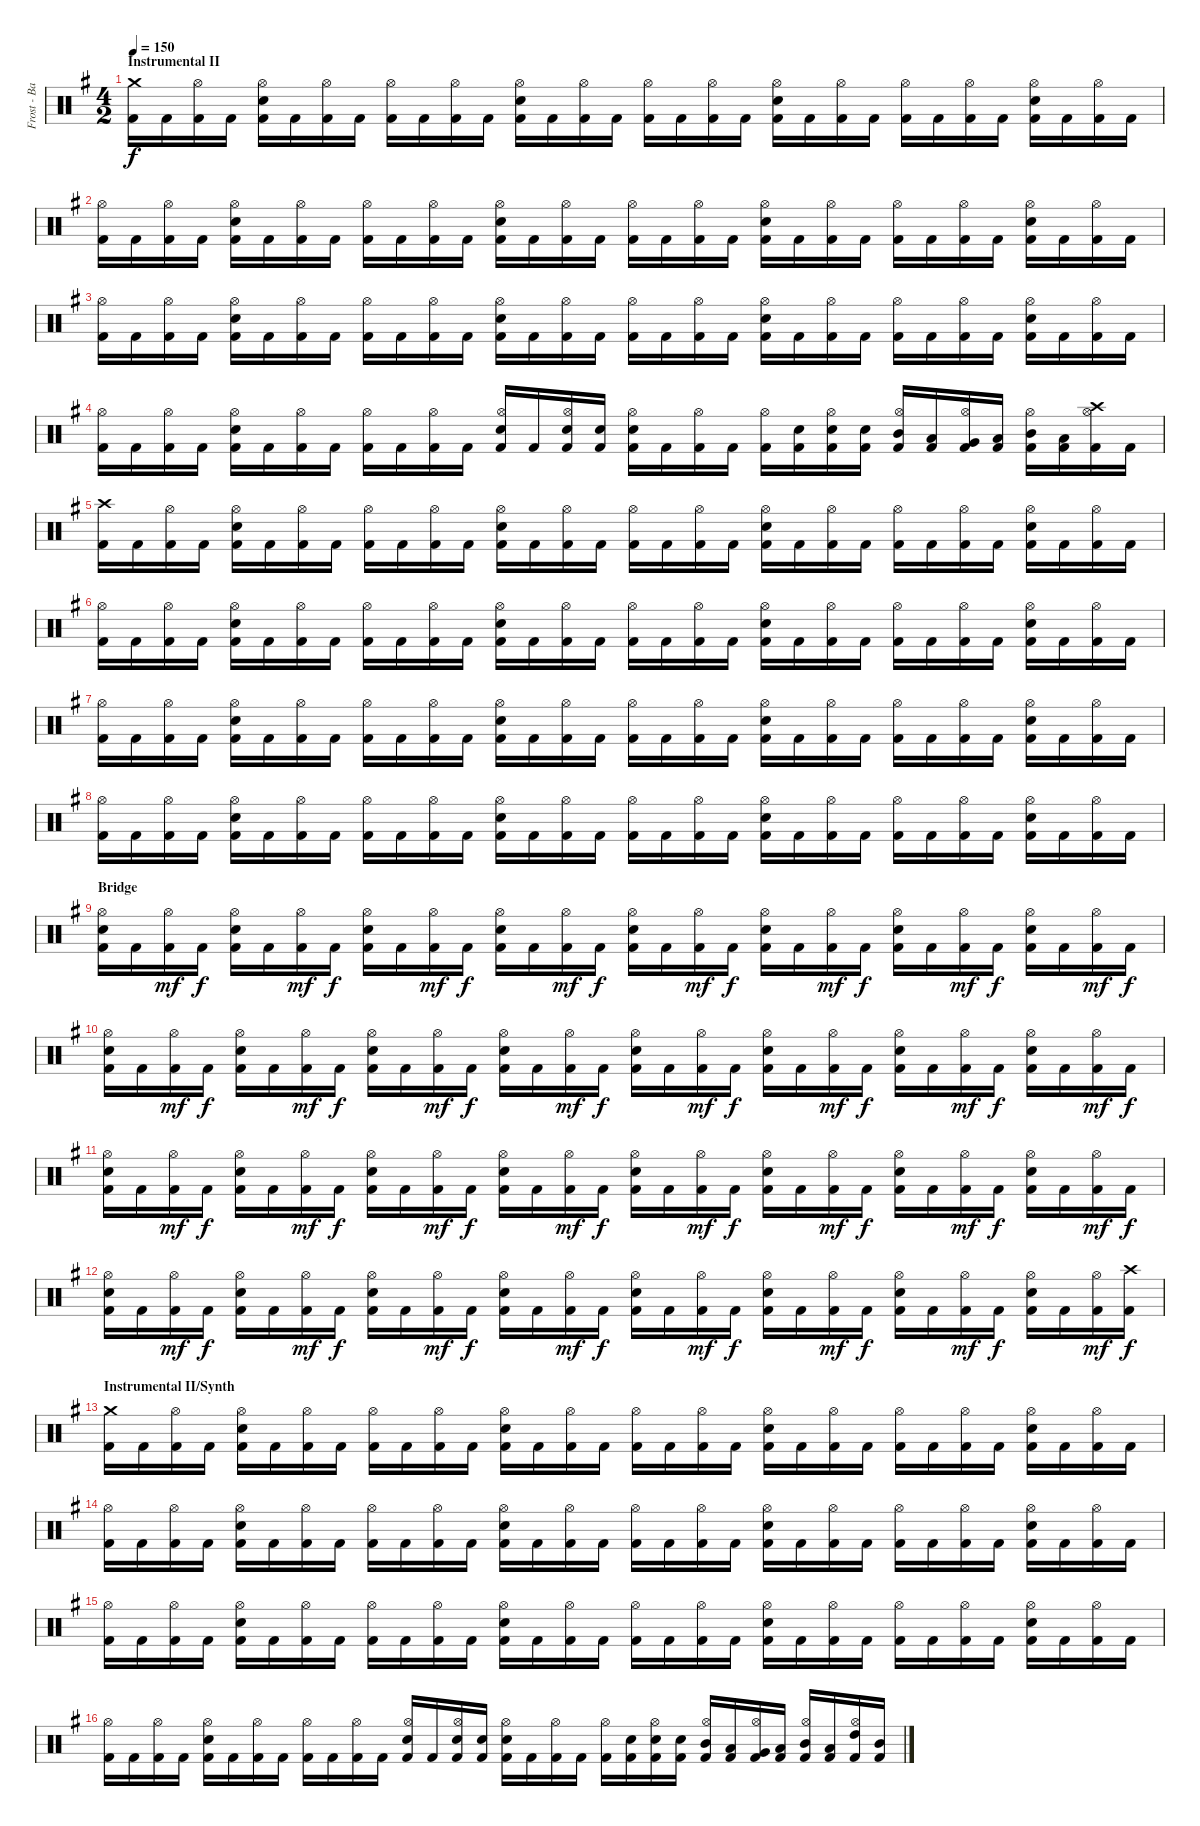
\track ("Frost - Battery" "Frost - Ba") {instrument percussion}
\staff {score}
\articulation defaults
\ts (4 2)
\section ("" "Instrumental II")
\tempo 150
\clef neutral
\ks eminor
("Kick (hit) 2" "Crash medium (hit)").16{dy f} "Kick (hit) 2".16 ("Kick (hit) 2" "Hi-Hat (open)").16 "Kick (hit) 2".16 ("Kick (hit) 2" "Hi-Hat (open)" "Electric Snare (hit)").16 "Kick (hit) 2".16 ("Kick (hit) 2" "Hi-Hat (open)").16 "Kick (hit) 2".16 ("Kick (hit) 2" "Hi-Hat (open)").16 "Kick (hit) 2".16 ("Kick (hit) 2" "Hi-Hat (open)").16 "Kick (hit) 2".16 ("Kick (hit) 2" "Hi-Hat (open)" "Electric Snare (hit)").16 "Kick (hit) 2".16 ("Kick (hit) 2" "Hi-Hat (open)").16 "Kick (hit) 2".16 ("Kick (hit) 2" "Hi-Hat (open)").16 "Kick (hit) 2".16 ("Kick (hit) 2" "Hi-Hat (open)").16 "Kick (hit) 2".16 ("Kick (hit) 2" "Hi-Hat (open)" "Electric Snare (hit)").16 "Kick (hit) 2".16 ("Kick (hit) 2" "Hi-Hat (open)").16 "Kick (hit) 2".16 ("Kick (hit) 2" "Hi-Hat (open)").16 "Kick (hit) 2".16 ("Kick (hit) 2" "Hi-Hat (open)").16 "Kick (hit) 2".16 ("Kick (hit) 2" "Hi-Hat (open)" "Electric Snare (hit)").16 "Kick (hit) 2".16 ("Kick (hit) 2" "Hi-Hat (open)").16 "Kick (hit) 2".16 |
("Kick (hit) 2" "Hi-Hat (open)").16 "Kick (hit) 2".16 ("Kick (hit) 2" "Hi-Hat (open)").16 "Kick (hit) 2".16 ("Kick (hit) 2" "Hi-Hat (open)" "Electric Snare (hit)").16 "Kick (hit) 2".16 ("Kick (hit) 2" "Hi-Hat (open)").16 "Kick (hit) 2".16 ("Kick (hit) 2" "Hi-Hat (open)").16 "Kick (hit) 2".16 ("Kick (hit) 2" "Hi-Hat (open)").16 "Kick (hit) 2".16 ("Kick (hit) 2" "Hi-Hat (open)" "Electric Snare (hit)").16 "Kick (hit) 2".16 ("Kick (hit) 2" "Hi-Hat (open)").16 "Kick (hit) 2".16 ("Kick (hit) 2" "Hi-Hat (open)").16 "Kick (hit) 2".16 ("Kick (hit) 2" "Hi-Hat (open)").16 "Kick (hit) 2".16 ("Kick (hit) 2" "Hi-Hat (open)" "Electric Snare (hit)").16 "Kick (hit) 2".16 ("Kick (hit) 2" "Hi-Hat (open)").16 "Kick (hit) 2".16 ("Kick (hit) 2" "Hi-Hat (open)").16 "Kick (hit) 2".16 ("Kick (hit) 2" "Hi-Hat (open)").16 "Kick (hit) 2".16 ("Kick (hit) 2" "Hi-Hat (open)" "Electric Snare (hit)").16 "Kick (hit) 2".16 ("Kick (hit) 2" "Hi-Hat (open)").16 "Kick (hit) 2".16 |
("Kick (hit) 2" "Hi-Hat (open)").16 "Kick (hit) 2".16 ("Kick (hit) 2" "Hi-Hat (open)").16 "Kick (hit) 2".16 ("Kick (hit) 2" "Hi-Hat (open)" "Electric Snare (hit)").16 "Kick (hit) 2".16 ("Kick (hit) 2" "Hi-Hat (open)").16 "Kick (hit) 2".16 ("Kick (hit) 2" "Hi-Hat (open)").16 "Kick (hit) 2".16 ("Kick (hit) 2" "Hi-Hat (open)").16 "Kick (hit) 2".16 ("Kick (hit) 2" "Hi-Hat (open)" "Electric Snare (hit)").16 "Kick (hit) 2".16 ("Kick (hit) 2" "Hi-Hat (open)").16 "Kick (hit) 2".16 ("Kick (hit) 2" "Hi-Hat (open)").16 "Kick (hit) 2".16 ("Kick (hit) 2" "Hi-Hat (open)").16 "Kick (hit) 2".16 ("Kick (hit) 2" "Hi-Hat (open)" "Electric Snare (hit)").16 "Kick (hit) 2".16 ("Kick (hit) 2" "Hi-Hat (open)").16 "Kick (hit) 2".16 ("Kick (hit) 2" "Hi-Hat (open)").16 "Kick (hit) 2".16 ("Kick (hit) 2" "Hi-Hat (open)").16 "Kick (hit) 2".16 ("Kick (hit) 2" "Hi-Hat (open)" "Electric Snare (hit)").16 "Kick (hit) 2".16 ("Kick (hit) 2" "Hi-Hat (open)").16 "Kick (hit) 2".16 |
("Kick (hit) 2" "Hi-Hat (open)").16 "Kick (hit) 2".16 ("Kick (hit) 2" "Hi-Hat (open)").16 "Kick (hit) 2".16 ("Kick (hit) 2" "Hi-Hat (open)" "Electric Snare (hit)").16 "Kick (hit) 2".16 ("Kick (hit) 2" "Hi-Hat (open)").16 "Kick (hit) 2".16 ("Kick (hit) 2" "Hi-Hat (open)").16 "Kick (hit) 2".16 ("Kick (hit) 2" "Hi-Hat (open)").16 "Kick (hit) 2".16 ("Kick (hit) 2" "Hi-Hat (open)" "Electric Snare (hit)").16 "Kick (hit) 2".16 ("Kick (hit) 2" "Hi-Hat (open)" "Electric Snare (hit)").16 ("Kick (hit) 2" "Electric Snare (hit)").16 ("Kick (hit) 2" "Hi-Hat (open)" "Electric Snare (hit)").16 "Kick (hit) 2".16 ("Kick (hit) 2" "Hi-Hat (open)").16 "Kick (hit) 2".16 ("Kick (hit) 2" "Hi-Hat (open)").16 ("Kick (hit) 2" "Electric Snare (hit)").16 ("Kick (hit) 2" "Hi-Hat (open)" "Electric Snare (hit)").16 ("Kick (hit) 2" "Electric Snare (hit)").16 ("Kick (hit) 2" "Hi-Hat (open)" "Mid Tom (hit)").16 ("Kick (hit) 2" "Low Tom (hit)").16 ("Kick (hit) 2" "Hi-Hat (open)" "Very Low Tom (hit)").16 ("Kick (hit) 2" "Low Floor Tom (hit)").16 ("Kick (hit) 2" "Hi-Hat (open)" "Mid Tom (hit)").16 ("Kick (hit) 2" "Low Tom (hit)").16 ("Kick (hit) 2" "Hi-Hat (open)" "Crash high (hit)").16 "Kick (hit) 2".16 |
("Kick (hit) 2" "Crash high (hit)").16 "Kick (hit) 2".16 ("Kick (hit) 2" "Hi-Hat (open)").16 "Kick (hit) 2".16 ("Kick (hit) 2" "Hi-Hat (open)" "Electric Snare (hit)").16 "Kick (hit) 2".16 ("Kick (hit) 2" "Hi-Hat (open)").16 "Kick (hit) 2".16 ("Kick (hit) 2" "Hi-Hat (open)").16 "Kick (hit) 2".16 ("Kick (hit) 2" "Hi-Hat (open)").16 "Kick (hit) 2".16 ("Kick (hit) 2" "Hi-Hat (open)" "Electric Snare (hit)").16 "Kick (hit) 2".16 ("Kick (hit) 2" "Hi-Hat (open)").16 "Kick (hit) 2".16 ("Kick (hit) 2" "Hi-Hat (open)").16 "Kick (hit) 2".16 ("Kick (hit) 2" "Hi-Hat (open)").16 "Kick (hit) 2".16 ("Kick (hit) 2" "Hi-Hat (open)" "Electric Snare (hit)").16 "Kick (hit) 2".16 ("Kick (hit) 2" "Hi-Hat (open)").16 "Kick (hit) 2".16 ("Kick (hit) 2" "Hi-Hat (open)").16 "Kick (hit) 2".16 ("Kick (hit) 2" "Hi-Hat (open)").16 "Kick (hit) 2".16 ("Kick (hit) 2" "Hi-Hat (open)" "Electric Snare (hit)").16 "Kick (hit) 2".16 ("Kick (hit) 2" "Hi-Hat (open)").16 "Kick (hit) 2".16 |
("Kick (hit) 2" "Hi-Hat (open)").16 "Kick (hit) 2".16 ("Kick (hit) 2" "Hi-Hat (open)").16 "Kick (hit) 2".16 ("Kick (hit) 2" "Hi-Hat (open)" "Electric Snare (hit)").16 "Kick (hit) 2".16 ("Kick (hit) 2" "Hi-Hat (open)").16 "Kick (hit) 2".16 ("Kick (hit) 2" "Hi-Hat (open)").16 "Kick (hit) 2".16 ("Kick (hit) 2" "Hi-Hat (open)").16 "Kick (hit) 2".16 ("Kick (hit) 2" "Hi-Hat (open)" "Electric Snare (hit)").16 "Kick (hit) 2".16 ("Kick (hit) 2" "Hi-Hat (open)").16 "Kick (hit) 2".16 ("Kick (hit) 2" "Hi-Hat (open)").16 "Kick (hit) 2".16 ("Kick (hit) 2" "Hi-Hat (open)").16 "Kick (hit) 2".16 ("Kick (hit) 2" "Hi-Hat (open)" "Electric Snare (hit)").16 "Kick (hit) 2".16 ("Kick (hit) 2" "Hi-Hat (open)").16 "Kick (hit) 2".16 ("Kick (hit) 2" "Hi-Hat (open)").16 "Kick (hit) 2".16 ("Kick (hit) 2" "Hi-Hat (open)").16 "Kick (hit) 2".16 ("Kick (hit) 2" "Hi-Hat (open)" "Electric Snare (hit)").16 "Kick (hit) 2".16 ("Kick (hit) 2" "Hi-Hat (open)").16 "Kick (hit) 2".16 |
("Kick (hit) 2" "Hi-Hat (open)").16 "Kick (hit) 2".16 ("Kick (hit) 2" "Hi-Hat (open)").16 "Kick (hit) 2".16 ("Kick (hit) 2" "Hi-Hat (open)" "Electric Snare (hit)").16 "Kick (hit) 2".16 ("Kick (hit) 2" "Hi-Hat (open)").16 "Kick (hit) 2".16 ("Kick (hit) 2" "Hi-Hat (open)").16 "Kick (hit) 2".16 ("Kick (hit) 2" "Hi-Hat (open)").16 "Kick (hit) 2".16 ("Kick (hit) 2" "Hi-Hat (open)" "Electric Snare (hit)").16 "Kick (hit) 2".16 ("Kick (hit) 2" "Hi-Hat (open)").16 "Kick (hit) 2".16 ("Kick (hit) 2" "Hi-Hat (open)").16 "Kick (hit) 2".16 ("Kick (hit) 2" "Hi-Hat (open)").16 "Kick (hit) 2".16 ("Kick (hit) 2" "Hi-Hat (open)" "Electric Snare (hit)").16 "Kick (hit) 2".16 ("Kick (hit) 2" "Hi-Hat (open)").16 "Kick (hit) 2".16 ("Kick (hit) 2" "Hi-Hat (open)").16 "Kick (hit) 2".16 ("Kick (hit) 2" "Hi-Hat (open)").16 "Kick (hit) 2".16 ("Kick (hit) 2" "Hi-Hat (open)" "Electric Snare (hit)").16 "Kick (hit) 2".16 ("Kick (hit) 2" "Hi-Hat (open)").16 "Kick (hit) 2".16 |
("Kick (hit) 2" "Hi-Hat (open)").16 "Kick (hit) 2".16 ("Kick (hit) 2" "Hi-Hat (open)").16 "Kick (hit) 2".16 ("Kick (hit) 2" "Hi-Hat (open)" "Electric Snare (hit)").16 "Kick (hit) 2".16 ("Kick (hit) 2" "Hi-Hat (open)").16 "Kick (hit) 2".16 ("Kick (hit) 2" "Hi-Hat (open)").16 "Kick (hit) 2".16 ("Kick (hit) 2" "Hi-Hat (open)").16 "Kick (hit) 2".16 ("Kick (hit) 2" "Hi-Hat (open)" "Electric Snare (hit)").16 "Kick (hit) 2".16 ("Kick (hit) 2" "Hi-Hat (open)").16 "Kick (hit) 2".16 ("Kick (hit) 2" "Hi-Hat (open)").16 "Kick (hit) 2".16 ("Kick (hit) 2" "Hi-Hat (open)").16 "Kick (hit) 2".16 ("Kick (hit) 2" "Hi-Hat (open)" "Electric Snare (hit)").16 "Kick (hit) 2".16 ("Kick (hit) 2" "Hi-Hat (open)").16 "Kick (hit) 2".16 ("Kick (hit) 2" "Hi-Hat (open)").16 "Kick (hit) 2".16 ("Kick (hit) 2" "Hi-Hat (open)").16 "Kick (hit) 2".16 ("Kick (hit) 2" "Hi-Hat (open)" "Electric Snare (hit)").16 "Kick (hit) 2".16 ("Kick (hit) 2" "Hi-Hat (open)").16 "Kick (hit) 2".16 |
\section ("" "Bridge")
("Kick (hit) 2" "Hi-Hat (open)" "Electric Snare (hit)").16 "Kick (hit) 2".16 ("Kick (hit) 2" "Hi-Hat (open)").16{dy mf} "Kick (hit) 2".16{dy f} ("Kick (hit) 2" "Hi-Hat (open)" "Electric Snare (hit)").16 "Kick (hit) 2".16 ("Kick (hit) 2" "Hi-Hat (open)").16{dy mf} "Kick (hit) 2".16{dy f} ("Kick (hit) 2" "Hi-Hat (open)" "Electric Snare (hit)").16 "Kick (hit) 2".16 ("Kick (hit) 2" "Hi-Hat (open)").16{dy mf} "Kick (hit) 2".16{dy f} ("Kick (hit) 2" "Hi-Hat (open)" "Electric Snare (hit)").16 "Kick (hit) 2".16 ("Kick (hit) 2" "Hi-Hat (open)").16{dy mf} "Kick (hit) 2".16{dy f} ("Kick (hit) 2" "Hi-Hat (open)" "Electric Snare (hit)").16 "Kick (hit) 2".16 ("Kick (hit) 2" "Hi-Hat (open)").16{dy mf} "Kick (hit) 2".16{dy f} ("Kick (hit) 2" "Hi-Hat (open)" "Electric Snare (hit)").16 "Kick (hit) 2".16 ("Kick (hit) 2" "Hi-Hat (open)").16{dy mf} "Kick (hit) 2".16{dy f} ("Kick (hit) 2" "Hi-Hat (open)" "Electric Snare (hit)").16 "Kick (hit) 2".16 ("Kick (hit) 2" "Hi-Hat (open)").16{dy mf} "Kick (hit) 2".16{dy f} ("Kick (hit) 2" "Hi-Hat (open)" "Electric Snare (hit)").16 "Kick (hit) 2".16 ("Kick (hit) 2" "Hi-Hat (open)").16{dy mf} "Kick (hit) 2".16{dy f} |
("Kick (hit) 2" "Hi-Hat (open)" "Electric Snare (hit)").16 "Kick (hit) 2".16 ("Kick (hit) 2" "Hi-Hat (open)").16{dy mf} "Kick (hit) 2".16{dy f} ("Kick (hit) 2" "Hi-Hat (open)" "Electric Snare (hit)").16 "Kick (hit) 2".16 ("Kick (hit) 2" "Hi-Hat (open)").16{dy mf} "Kick (hit) 2".16{dy f} ("Kick (hit) 2" "Hi-Hat (open)" "Electric Snare (hit)").16 "Kick (hit) 2".16 ("Kick (hit) 2" "Hi-Hat (open)").16{dy mf} "Kick (hit) 2".16{dy f} ("Kick (hit) 2" "Hi-Hat (open)" "Electric Snare (hit)").16 "Kick (hit) 2".16 ("Kick (hit) 2" "Hi-Hat (open)").16{dy mf} "Kick (hit) 2".16{dy f} ("Kick (hit) 2" "Hi-Hat (open)" "Electric Snare (hit)").16 "Kick (hit) 2".16 ("Kick (hit) 2" "Hi-Hat (open)").16{dy mf} "Kick (hit) 2".16{dy f} ("Kick (hit) 2" "Hi-Hat (open)" "Electric Snare (hit)").16 "Kick (hit) 2".16 ("Kick (hit) 2" "Hi-Hat (open)").16{dy mf} "Kick (hit) 2".16{dy f} ("Kick (hit) 2" "Hi-Hat (open)" "Electric Snare (hit)").16 "Kick (hit) 2".16 ("Kick (hit) 2" "Hi-Hat (open)").16{dy mf} "Kick (hit) 2".16{dy f} ("Kick (hit) 2" "Hi-Hat (open)" "Electric Snare (hit)").16 "Kick (hit) 2".16 ("Kick (hit) 2" "Hi-Hat (open)").16{dy mf} "Kick (hit) 2".16{dy f} |
("Kick (hit) 2" "Hi-Hat (open)" "Electric Snare (hit)").16 "Kick (hit) 2".16 ("Kick (hit) 2" "Hi-Hat (open)").16{dy mf} "Kick (hit) 2".16{dy f} ("Kick (hit) 2" "Hi-Hat (open)" "Electric Snare (hit)").16 "Kick (hit) 2".16 ("Kick (hit) 2" "Hi-Hat (open)").16{dy mf} "Kick (hit) 2".16{dy f} ("Kick (hit) 2" "Hi-Hat (open)" "Electric Snare (hit)").16 "Kick (hit) 2".16 ("Kick (hit) 2" "Hi-Hat (open)").16{dy mf} "Kick (hit) 2".16{dy f} ("Kick (hit) 2" "Hi-Hat (open)" "Electric Snare (hit)").16 "Kick (hit) 2".16 ("Kick (hit) 2" "Hi-Hat (open)").16{dy mf} "Kick (hit) 2".16{dy f} ("Kick (hit) 2" "Hi-Hat (open)" "Electric Snare (hit)").16 "Kick (hit) 2".16 ("Kick (hit) 2" "Hi-Hat (open)").16{dy mf} "Kick (hit) 2".16{dy f} ("Kick (hit) 2" "Hi-Hat (open)" "Electric Snare (hit)").16 "Kick (hit) 2".16 ("Kick (hit) 2" "Hi-Hat (open)").16{dy mf} "Kick (hit) 2".16{dy f} ("Kick (hit) 2" "Hi-Hat (open)" "Electric Snare (hit)").16 "Kick (hit) 2".16 ("Kick (hit) 2" "Hi-Hat (open)").16{dy mf} "Kick (hit) 2".16{dy f} ("Kick (hit) 2" "Hi-Hat (open)" "Electric Snare (hit)").16 "Kick (hit) 2".16 ("Kick (hit) 2" "Hi-Hat (open)").16{dy mf} "Kick (hit) 2".16{dy f} |
("Kick (hit) 2" "Hi-Hat (open)" "Electric Snare (hit)").16 "Kick (hit) 2".16 ("Kick (hit) 2" "Hi-Hat (open)").16{dy mf} "Kick (hit) 2".16{dy f} ("Kick (hit) 2" "Hi-Hat (open)" "Electric Snare (hit)").16 "Kick (hit) 2".16 ("Kick (hit) 2" "Hi-Hat (open)").16{dy mf} "Kick (hit) 2".16{dy f} ("Kick (hit) 2" "Hi-Hat (open)" "Electric Snare (hit)").16 "Kick (hit) 2".16 ("Kick (hit) 2" "Hi-Hat (open)").16{dy mf} "Kick (hit) 2".16{dy f} ("Kick (hit) 2" "Hi-Hat (open)" "Electric Snare (hit)").16 "Kick (hit) 2".16 ("Kick (hit) 2" "Hi-Hat (open)").16{dy mf} "Kick (hit) 2".16{dy f} ("Kick (hit) 2" "Hi-Hat (open)" "Electric Snare (hit)").16 "Kick (hit) 2".16 ("Kick (hit) 2" "Hi-Hat (open)").16{dy mf} "Kick (hit) 2".16{dy f} ("Kick (hit) 2" "Hi-Hat (open)" "Electric Snare (hit)").16 "Kick (hit) 2".16 ("Kick (hit) 2" "Hi-Hat (open)").16{dy mf} "Kick (hit) 2".16{dy f} ("Kick (hit) 2" "Hi-Hat (open)" "Electric Snare (hit)").16 "Kick (hit) 2".16 ("Kick (hit) 2" "Hi-Hat (open)").16{dy mf} "Kick (hit) 2".16{dy f} ("Kick (hit) 2" "Hi-Hat (open)" "Electric Snare (hit)").16 "Kick (hit) 2".16 ("Kick (hit) 2" "Hi-Hat (open)").16{dy mf} ("Kick (hit) 2" "Crash high (hit)").16{dy f} |
\section ("" "Instrumental II/Synth")
("Kick (hit) 2" "Crash medium (hit)").16 "Kick (hit) 2".16 ("Kick (hit) 2" "Hi-Hat (open)").16 "Kick (hit) 2".16 ("Kick (hit) 2" "Hi-Hat (open)" "Electric Snare (hit)").16 "Kick (hit) 2".16 ("Kick (hit) 2" "Hi-Hat (open)").16 "Kick (hit) 2".16 ("Kick (hit) 2" "Hi-Hat (open)").16 "Kick (hit) 2".16 ("Kick (hit) 2" "Hi-Hat (open)").16 "Kick (hit) 2".16 ("Kick (hit) 2" "Hi-Hat (open)" "Electric Snare (hit)").16 "Kick (hit) 2".16 ("Kick (hit) 2" "Hi-Hat (open)").16 "Kick (hit) 2".16 ("Kick (hit) 2" "Hi-Hat (open)").16 "Kick (hit) 2".16 ("Kick (hit) 2" "Hi-Hat (open)").16 "Kick (hit) 2".16 ("Kick (hit) 2" "Hi-Hat (open)" "Electric Snare (hit)").16 "Kick (hit) 2".16 ("Kick (hit) 2" "Hi-Hat (open)").16 "Kick (hit) 2".16 ("Kick (hit) 2" "Hi-Hat (open)").16 "Kick (hit) 2".16 ("Kick (hit) 2" "Hi-Hat (open)").16 "Kick (hit) 2".16 ("Kick (hit) 2" "Hi-Hat (open)" "Electric Snare (hit)").16 "Kick (hit) 2".16 ("Kick (hit) 2" "Hi-Hat (open)").16 "Kick (hit) 2".16 |
("Kick (hit) 2" "Hi-Hat (open)").16 "Kick (hit) 2".16 ("Kick (hit) 2" "Hi-Hat (open)").16 "Kick (hit) 2".16 ("Kick (hit) 2" "Hi-Hat (open)" "Electric Snare (hit)").16 "Kick (hit) 2".16 ("Kick (hit) 2" "Hi-Hat (open)").16 "Kick (hit) 2".16 ("Kick (hit) 2" "Hi-Hat (open)").16 "Kick (hit) 2".16 ("Kick (hit) 2" "Hi-Hat (open)").16 "Kick (hit) 2".16 ("Kick (hit) 2" "Hi-Hat (open)" "Electric Snare (hit)").16 "Kick (hit) 2".16 ("Kick (hit) 2" "Hi-Hat (open)").16 "Kick (hit) 2".16 ("Kick (hit) 2" "Hi-Hat (open)").16 "Kick (hit) 2".16 ("Kick (hit) 2" "Hi-Hat (open)").16 "Kick (hit) 2".16 ("Kick (hit) 2" "Hi-Hat (open)" "Electric Snare (hit)").16 "Kick (hit) 2".16 ("Kick (hit) 2" "Hi-Hat (open)").16 "Kick (hit) 2".16 ("Kick (hit) 2" "Hi-Hat (open)").16 "Kick (hit) 2".16 ("Kick (hit) 2" "Hi-Hat (open)").16 "Kick (hit) 2".16 ("Kick (hit) 2" "Hi-Hat (open)" "Electric Snare (hit)").16 "Kick (hit) 2".16 ("Kick (hit) 2" "Hi-Hat (open)").16 "Kick (hit) 2".16 |
("Kick (hit) 2" "Hi-Hat (open)").16 "Kick (hit) 2".16 ("Kick (hit) 2" "Hi-Hat (open)").16 "Kick (hit) 2".16 ("Kick (hit) 2" "Hi-Hat (open)" "Electric Snare (hit)").16 "Kick (hit) 2".16 ("Kick (hit) 2" "Hi-Hat (open)").16 "Kick (hit) 2".16 ("Kick (hit) 2" "Hi-Hat (open)").16 "Kick (hit) 2".16 ("Kick (hit) 2" "Hi-Hat (open)").16 "Kick (hit) 2".16 ("Kick (hit) 2" "Hi-Hat (open)" "Electric Snare (hit)").16 "Kick (hit) 2".16 ("Kick (hit) 2" "Hi-Hat (open)").16 "Kick (hit) 2".16 ("Kick (hit) 2" "Hi-Hat (open)").16 "Kick (hit) 2".16 ("Kick (hit) 2" "Hi-Hat (open)").16 "Kick (hit) 2".16 ("Kick (hit) 2" "Hi-Hat (open)" "Electric Snare (hit)").16 "Kick (hit) 2".16 ("Kick (hit) 2" "Hi-Hat (open)").16 "Kick (hit) 2".16 ("Kick (hit) 2" "Hi-Hat (open)").16 "Kick (hit) 2".16 ("Kick (hit) 2" "Hi-Hat (open)").16 "Kick (hit) 2".16 ("Kick (hit) 2" "Hi-Hat (open)" "Electric Snare (hit)").16 "Kick (hit) 2".16 ("Kick (hit) 2" "Hi-Hat (open)").16 "Kick (hit) 2".16 |
("Kick (hit) 2" "Hi-Hat (open)").16 "Kick (hit) 2".16 ("Kick (hit) 2" "Hi-Hat (open)").16 "Kick (hit) 2".16 ("Kick (hit) 2" "Hi-Hat (open)" "Electric Snare (hit)").16 "Kick (hit) 2".16 ("Kick (hit) 2" "Hi-Hat (open)").16 "Kick (hit) 2".16 ("Kick (hit) 2" "Hi-Hat (open)").16 "Kick (hit) 2".16 ("Kick (hit) 2" "Hi-Hat (open)").16 "Kick (hit) 2".16 ("Kick (hit) 2" "Hi-Hat (open)" "Electric Snare (hit)").16 "Kick (hit) 2".16 ("Kick (hit) 2" "Hi-Hat (open)" "Electric Snare (hit)").16 ("Kick (hit) 2" "Electric Snare (hit)").16 ("Kick (hit) 2" "Hi-Hat (open)" "Electric Snare (hit)").16 "Kick (hit) 2".16 ("Kick (hit) 2" "Hi-Hat (open)").16 "Kick (hit) 2".16 ("Kick (hit) 2" "Hi-Hat (open)").16 ("Kick (hit) 2" "Electric Snare (hit)").16 ("Kick (hit) 2" "Hi-Hat (open)" "Electric Snare (hit)").16 ("Kick (hit) 2" "Electric Snare (hit)").16 ("Kick (hit) 2" "Hi-Hat (open)" "Mid Tom (hit)").16 ("Kick (hit) 2" "Low Tom (hit)").16 ("Kick (hit) 2" "Hi-Hat (open)" "Very Low Tom (hit)").16 ("Kick (hit) 2" "Low Floor Tom (hit)").16 ("Kick (hit) 2" "Hi-Hat (open)" "Mid Tom (hit)").16 ("Kick (hit) 2" "Low Tom (hit)").16 ("Kick (hit) 2" "Hi-Hat (open)" "High Tom (hit)").16 ("Kick (hit) 2" "Mid Tom (hit)").16
